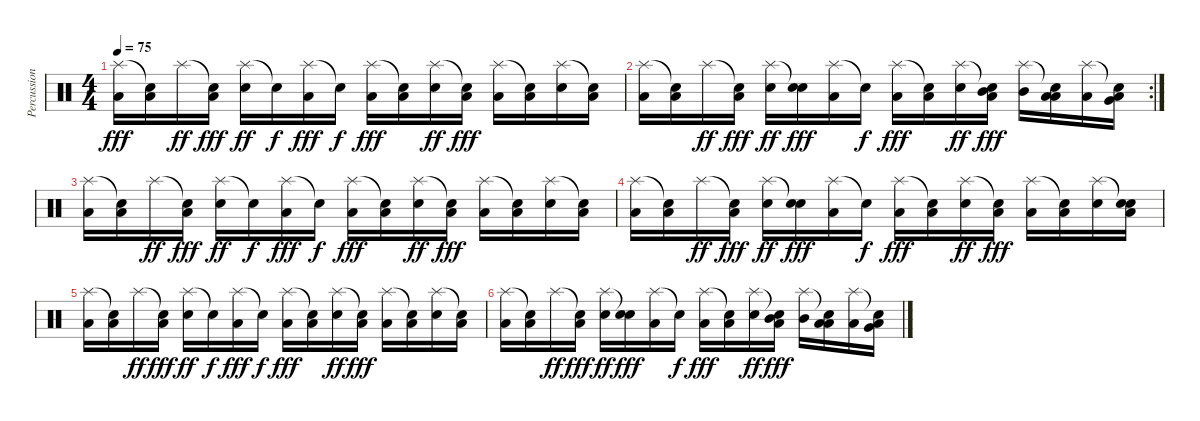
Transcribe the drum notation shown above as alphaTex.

\track ("Percussion" "Percussion") {instrument percussion}
\staff {score}
\articulation defaults
\ts (4 4)
\tempo 75
\clef neutral
\ks c
("Splash (hit)" "Low Floor Tom (hit)").16{dy fff} ("Snare (hit)"{t} "Low Floor Tom (hit)").16 "Splash (hit)".16{dy ff} ("Snare (hit)"{t} "Low Floor Tom (hit)").16{dy fff} ("Splash (hit)" "Snare (hit) 2").16{dy ff} "Snare (hit)"{t}.16{dy f} ("Splash (hit)" "Low Floor Tom (hit)").16{dy fff} "Snare (hit)"{t}.16{dy f} ("Splash (hit)" "Low Floor Tom (hit)").16{dy fff} ("Snare (hit)"{t} "Low Floor Tom (hit)").16 ("Splash (hit)" "Snare (hit) 2").16{dy ff} ("Snare (hit)"{t} "Low Floor Tom (hit)").16{dy fff} ("Splash (hit)" "Low Floor Tom (hit)").16 ("Snare (hit)"{t} "Low Floor Tom (hit)").16 ("Splash (hit)" "Snare (hit) 2").16 ("Snare (hit)"{t} "Low Floor Tom (hit)").16 |
\rc 2
("Splash (hit)" "Low Floor Tom (hit)").16 ("Snare (hit)"{t} "Low Floor Tom (hit)").16 "Splash (hit)".16{dy ff} ("Snare (hit)"{t} "Low Floor Tom (hit)").16{dy fff} ("Splash (hit)" "Snare (hit) 2").16{dy ff} ("Snare (hit)"{t} "Snare (hit) 2").16{dy fff} ("Splash (hit)" "Low Floor Tom (hit)").16 "Snare (hit)"{t}.16{dy f} ("Splash (hit)" "Low Floor Tom (hit)").16{dy fff} ("Snare (hit)"{t} "Low Floor Tom (hit)").16 ("Splash (hit)" "Snare (hit) 2").16{dy ff} ("Snare (hit)"{t} "Mid Tom (hit)" "Low Floor Tom (hit)").16{dy fff} ("Splash (hit)" "Mid Tom (hit)").16 ("Snare (hit)"{t} "Low Tom (hit)" "Low Floor Tom (hit)").16 ("Splash (hit)" "Low Tom (hit)").16 ("Snare (hit)"{t} "Very Low Tom (hit)" "Low Floor Tom (hit)").16 |
("Splash (hit)" "Low Floor Tom (hit)").16{volume 0} ("Snare (hit)"{t} "Low Floor Tom (hit)").16 "Splash (hit)".16{dy ff} ("Snare (hit)"{t} "Low Floor Tom (hit)").16{dy fff} ("Splash (hit)" "Snare (hit) 2").16{dy ff} "Snare (hit)"{t}.16{dy f} ("Splash (hit)" "Low Floor Tom (hit)").16{dy fff} "Snare (hit)"{t}.16{dy f} ("Splash (hit)" "Low Floor Tom (hit)").16{dy fff} ("Snare (hit)"{t} "Low Floor Tom (hit)").16 ("Splash (hit)" "Snare (hit) 2").16{dy ff} ("Snare (hit)"{t} "Low Floor Tom (hit)").16{dy fff} ("Splash (hit)" "Low Floor Tom (hit)").16 ("Snare (hit)"{t} "Low Floor Tom (hit)").16 ("Splash (hit)" "Snare (hit) 2").16 ("Snare (hit)"{t} "Low Floor Tom (hit)").16 |
("Splash (hit)" "Low Floor Tom (hit)").16 ("Snare (hit)"{t} "Low Floor Tom (hit)").16 "Splash (hit)".16{dy ff} ("Snare (hit)"{t} "Low Floor Tom (hit)").16{dy fff} ("Splash (hit)" "Snare (hit) 2").16{dy ff} ("Snare (hit)"{t} "Snare (hit) 2").16{dy fff} ("Splash (hit)" "Low Floor Tom (hit)").16 "Snare (hit)"{t}.16{dy f} ("Splash (hit)" "Low Floor Tom (hit)").16{dy fff} ("Snare (hit)"{t} "Low Floor Tom (hit)").16 ("Splash (hit)" "Snare (hit) 2").16{dy ff} ("Snare (hit)"{t} "Low Floor Tom (hit)").16{dy fff} ("Splash (hit)" "Low Tom (hit)").16 ("Snare (hit)"{t} "Low Floor Tom (hit)").16 ("Splash (hit)" "Snare (hit) 2").16 ("Snare (hit)"{t} "Snare (hit) 2" "Low Floor Tom (hit)").16 |
("Splash (hit)" "Low Floor Tom (hit)").16 ("Snare (hit)"{t} "Low Floor Tom (hit)").16 "Splash (hit)".16{dy ff} ("Snare (hit)"{t} "Low Floor Tom (hit)").16{dy fff} ("Splash (hit)" "Snare (hit) 2").16{dy ff} "Snare (hit)"{t}.16{dy f} ("Splash (hit)" "Low Floor Tom (hit)").16{dy fff} "Snare (hit)"{t}.16{dy f} ("Splash (hit)" "Low Floor Tom (hit)").16{dy fff} ("Snare (hit)"{t} "Low Floor Tom (hit)").16 ("Splash (hit)" "Snare (hit) 2").16{dy ff} ("Snare (hit)"{t} "Low Floor Tom (hit)").16{dy fff} ("Splash (hit)" "Low Floor Tom (hit)").16 ("Snare (hit)"{t} "Low Floor Tom (hit)").16 ("Splash (hit)" "Snare (hit) 2").16 ("Snare (hit)"{t} "Low Floor Tom (hit)").16 |
("Splash (hit)" "Low Floor Tom (hit)").16 ("Snare (hit)"{t} "Low Floor Tom (hit)").16 "Splash (hit)".16{dy ff} ("Snare (hit)"{t} "Low Floor Tom (hit)").16{dy fff} ("Splash (hit)" "Snare (hit) 2").16{dy ff} ("Snare (hit)"{t} "Snare (hit) 2").16{dy fff} ("Splash (hit)" "Low Floor Tom (hit)").16 "Snare (hit)"{t}.16{dy f} ("Splash (hit)" "Low Floor Tom (hit)").16{dy fff} ("Snare (hit)"{t} "Low Floor Tom (hit)").16 ("Splash (hit)" "Snare (hit) 2").16{dy ff} ("Snare (hit)"{t} "Mid Tom (hit)" "Low Floor Tom (hit)").16{dy fff} ("Splash (hit)" "Mid Tom (hit)").16 ("Snare (hit)"{t} "Low Tom (hit)" "Low Floor Tom (hit)").16 ("Splash (hit)" "Low Tom (hit)").16 ("Snare (hit)"{t} "Very Low Tom (hit)" "Low Floor Tom (hit)").16
